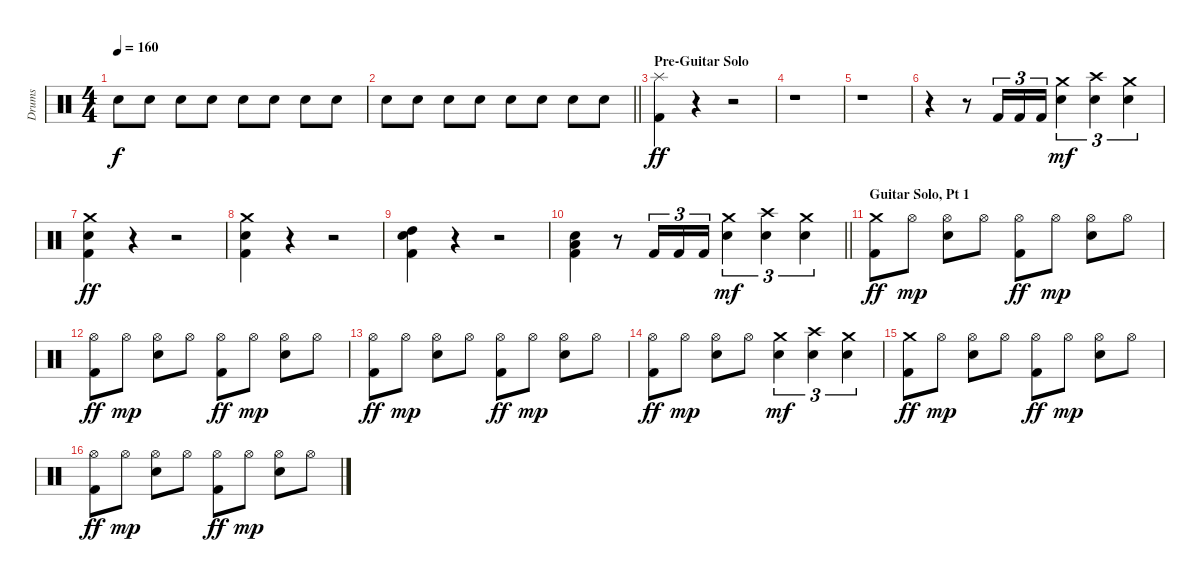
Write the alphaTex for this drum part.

\track ("Drums" "Drums") {instrument percussion}
\staff {score}
\articulation defaults
\ts (4 4)
\tempo 160
\clef neutral
\ks c "Electric Snare (hit)".8{dy f} "Electric Snare (hit)".8 "Electric Snare (hit)".8 "Electric Snare (hit)".8 "Electric Snare (hit)".8 "Electric Snare (hit)".8 "Electric Snare (hit)".8 "Electric Snare (hit)".8
|
\barLineRight lightlight "Electric Snare (hit)".8 "Electric Snare (hit)".8 "Electric Snare (hit)".8 "Electric Snare (hit)".8 "Electric Snare (hit)".8 "Electric Snare (hit)".8 "Electric Snare (hit)".8 "Electric Snare (hit)".8
|
\section ("" "Pre-Guitar Solo")
("Splash (hit)" "Kick (hit) 2").4{dy ff} r.4 r.2 |
r.1 |
r.1 |
r.4 r.8 "Kick (hit) 2".16{tu (3 2)} "Kick (hit) 2".16{tu (3 2)} "Kick (hit) 2".16{tu (3 2)} ("Crash medium (hit)" "Electric Snare (hit)").4{tu (3 2) dy mf} ("Crash high (hit)" "Electric Snare (hit)").4{tu (3 2)} ("Crash medium (hit)" "Electric Snare (hit)").4{tu (3 2)} |
("Crash medium (hit)" "Electric Snare (hit)" "Kick (hit) 2").4{dy ff} r.4 r.2 |
("Crash medium (hit)" "Electric Snare (hit)" "Kick (hit) 2").4 r.4 r.2 |
("High Tom (hit)" "Electric Snare (hit)" "Kick (hit) 2").4 r.4 r.2 |
\barLineRight lightlight
("Low Tom (hit)" "Electric Snare (hit)" "Kick (hit) 2").4 r.8 "Kick (hit) 2".16{tu (3 2)} "Kick (hit) 2".16{tu (3 2)} "Kick (hit) 2".16{tu (3 2)} ("Crash medium (hit)" "Electric Snare (hit)").4{tu (3 2) dy mf} ("Crash high (hit)" "Electric Snare (hit)").4{tu (3 2)} ("Crash medium (hit)" "Electric Snare (hit)").4{tu (3 2)} |
\section ("" "Guitar Solo, Pt 1")
("Crash medium (hit)" "Kick (hit) 2").8{dy ff} "Hi-Hat (open)".8{dy mp} ("Hi-Hat (open)" "Electric Snare (hit)").8 "Hi-Hat (open)".8 ("Hi-Hat (open)" "Kick (hit) 2").8{dy ff} "Hi-Hat (open)".8{dy mp} ("Hi-Hat (open)" "Electric Snare (hit)").8 "Hi-Hat (open)".8 |
("Hi-Hat (open)" "Kick (hit) 2").8{dy ff} "Hi-Hat (open)".8{dy mp} ("Hi-Hat (open)" "Electric Snare (hit)").8 "Hi-Hat (open)".8 ("Hi-Hat (open)" "Kick (hit) 2").8{dy ff} "Hi-Hat (open)".8{dy mp} ("Hi-Hat (open)" "Electric Snare (hit)").8 "Hi-Hat (open)".8 |
("Hi-Hat (open)" "Kick (hit) 2").8{dy ff} "Hi-Hat (open)".8{dy mp} ("Hi-Hat (open)" "Electric Snare (hit)").8 "Hi-Hat (open)".8 ("Hi-Hat (open)" "Kick (hit) 2").8{dy ff} "Hi-Hat (open)".8{dy mp} ("Hi-Hat (open)" "Electric Snare (hit)").8 "Hi-Hat (open)".8 |
("Hi-Hat (open)" "Kick (hit) 2").8{dy ff} "Hi-Hat (open)".8{dy mp} ("Hi-Hat (open)" "Electric Snare (hit)").8 "Hi-Hat (open)".8 ("Crash medium (hit)" "Electric Snare (hit)").4{tu (3 2) dy mf} ("Crash high (hit)" "Electric Snare (hit)").4{tu (3 2)} ("Crash medium (hit)" "Electric Snare (hit)").4{tu (3 2)} |
("Crash medium (hit)" "Kick (hit) 2").8{dy ff} "Hi-Hat (open)".8{dy mp} ("Hi-Hat (open)" "Electric Snare (hit)").8 "Hi-Hat (open)".8 ("Hi-Hat (open)" "Kick (hit) 2").8{dy ff} "Hi-Hat (open)".8{dy mp} ("Hi-Hat (open)" "Electric Snare (hit)").8 "Hi-Hat (open)".8 |
("Hi-Hat (open)" "Kick (hit) 2").8{dy ff} "Hi-Hat (open)".8{dy mp} ("Hi-Hat (open)" "Electric Snare (hit)").8 "Hi-Hat (open)".8 ("Hi-Hat (open)" "Kick (hit) 2").8{dy ff} "Hi-Hat (open)".8{dy mp} ("Hi-Hat (open)" "Electric Snare (hit)").8 "Hi-Hat (open)".8
